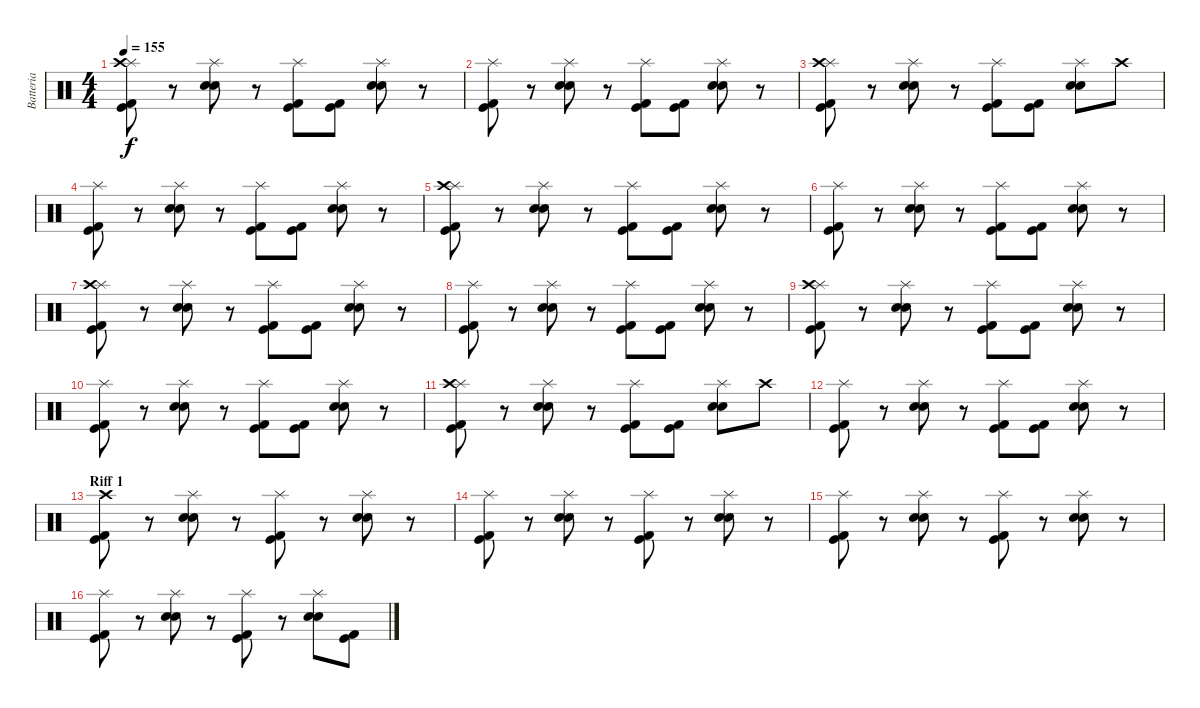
\track ("Batteria" "Batteria") {instrument percussion}
\staff {score}
\articulation defaults
\ts (4 4)
\tempo 155
\clef neutral
\ks c
("Kick (hit)" "Kick (hit) 2" "Splash (hit)" "Crash high (hit)").8{dy f} r.8 ("Electric Snare (hit)" "Snare (hit) 2" "Splash (hit)").8 r.8 ("Kick (hit)" "Kick (hit) 2" "Splash (hit)").8 ("Kick (hit)" "Kick (hit) 2").8 ("Electric Snare (hit)" "Snare (hit) 2" "Splash (hit)").8 r.8 |
("Kick (hit)" "Kick (hit) 2" "Splash (hit)").8 r.8 ("Electric Snare (hit)" "Snare (hit) 2" "Splash (hit)").8 r.8 ("Kick (hit)" "Kick (hit) 2" "Splash (hit)").8 ("Kick (hit)" "Kick (hit) 2").8 ("Electric Snare (hit)" "Snare (hit) 2" "Splash (hit)").8 r.8 |
("Kick (hit)" "Kick (hit) 2" "Splash (hit)" "Crash high (hit)").8 r.8 ("Electric Snare (hit)" "Snare (hit) 2" "Splash (hit)").8 r.8 ("Kick (hit)" "Kick (hit) 2" "Splash (hit)").8 ("Kick (hit)" "Kick (hit) 2").8 ("Electric Snare (hit)" "Snare (hit) 2" "Splash (hit)").8 "Crash high (hit)".8 |
("Kick (hit)" "Kick (hit) 2" "Splash (hit)").8 r.8 ("Electric Snare (hit)" "Snare (hit) 2" "Splash (hit)").8 r.8 ("Kick (hit)" "Kick (hit) 2" "Splash (hit)").8 ("Kick (hit)" "Kick (hit) 2").8 ("Electric Snare (hit)" "Snare (hit) 2" "Splash (hit)").8 r.8 |
("Kick (hit)" "Kick (hit) 2" "Splash (hit)" "Crash high (hit)").8 r.8 ("Electric Snare (hit)" "Snare (hit) 2" "Splash (hit)").8 r.8 ("Kick (hit)" "Kick (hit) 2" "Splash (hit)").8 ("Kick (hit)" "Kick (hit) 2").8 ("Electric Snare (hit)" "Snare (hit) 2" "Splash (hit)").8 r.8 |
("Kick (hit)" "Kick (hit) 2" "Splash (hit)").8 r.8 ("Electric Snare (hit)" "Snare (hit) 2" "Splash (hit)").8 r.8 ("Kick (hit)" "Kick (hit) 2" "Splash (hit)").8 ("Kick (hit)" "Kick (hit) 2").8 ("Electric Snare (hit)" "Snare (hit) 2" "Splash (hit)").8 r.8 |
("Kick (hit)" "Kick (hit) 2" "Splash (hit)" "Crash high (hit)").8 r.8 ("Electric Snare (hit)" "Snare (hit) 2" "Splash (hit)").8 r.8 ("Kick (hit)" "Kick (hit) 2" "Splash (hit)").8 ("Kick (hit)" "Kick (hit) 2").8 ("Electric Snare (hit)" "Snare (hit) 2" "Splash (hit)").8 r.8 |
("Kick (hit)" "Kick (hit) 2" "Splash (hit)").8 r.8 ("Electric Snare (hit)" "Snare (hit) 2" "Splash (hit)").8 r.8 ("Kick (hit)" "Kick (hit) 2" "Splash (hit)").8 ("Kick (hit)" "Kick (hit) 2").8 ("Electric Snare (hit)" "Snare (hit) 2" "Splash (hit)").8 r.8 |
("Kick (hit)" "Kick (hit) 2" "Splash (hit)" "Crash high (hit)").8 r.8 ("Electric Snare (hit)" "Snare (hit) 2" "Splash (hit)").8 r.8 ("Kick (hit)" "Kick (hit) 2" "Splash (hit)").8 ("Kick (hit)" "Kick (hit) 2").8 ("Electric Snare (hit)" "Snare (hit) 2" "Splash (hit)").8 r.8 |
("Kick (hit)" "Kick (hit) 2" "Splash (hit)").8 r.8 ("Electric Snare (hit)" "Snare (hit) 2" "Splash (hit)").8 r.8 ("Kick (hit)" "Kick (hit) 2" "Splash (hit)").8 ("Kick (hit)" "Kick (hit) 2").8 ("Electric Snare (hit)" "Snare (hit) 2" "Splash (hit)").8 r.8 |
("Kick (hit)" "Kick (hit) 2" "Splash (hit)" "Crash high (hit)").8 r.8 ("Electric Snare (hit)" "Snare (hit) 2" "Splash (hit)").8 r.8 ("Kick (hit)" "Kick (hit) 2" "Splash (hit)").8 ("Kick (hit)" "Kick (hit) 2").8 ("Electric Snare (hit)" "Snare (hit) 2" "Splash (hit)").8 "Crash high (hit)".8 |
("Kick (hit)" "Kick (hit) 2" "Splash (hit)").8 r.8 ("Electric Snare (hit)" "Snare (hit) 2" "Splash (hit)").8 r.8 ("Kick (hit)" "Kick (hit) 2" "Splash (hit)").8 ("Kick (hit)" "Kick (hit) 2").8 ("Electric Snare (hit)" "Snare (hit) 2" "Splash (hit)").8 r.8 |
\section ("" "Riff 1")
("Kick (hit)" "Kick (hit) 2" "Crash high (hit)").8 r.8 ("Electric Snare (hit)" "Snare (hit) 2" "Splash (hit)").8 r.8 ("Kick (hit)" "Kick (hit) 2" "Splash (hit)").8 r.8 ("Electric Snare (hit)" "Snare (hit) 2" "Splash (hit)").8 r.8 |
("Kick (hit)" "Kick (hit) 2" "Splash (hit)").8 r.8 ("Electric Snare (hit)" "Snare (hit) 2" "Splash (hit)").8 r.8 ("Kick (hit)" "Kick (hit) 2" "Splash (hit)").8 r.8 ("Electric Snare (hit)" "Snare (hit) 2" "Splash (hit)").8 r.8 |
("Kick (hit)" "Kick (hit) 2" "Splash (hit)").8 r.8 ("Electric Snare (hit)" "Snare (hit) 2" "Splash (hit)").8 r.8 ("Kick (hit)" "Kick (hit) 2" "Splash (hit)").8 r.8 ("Electric Snare (hit)" "Snare (hit) 2" "Splash (hit)").8 r.8 |
("Kick (hit)" "Kick (hit) 2" "Splash (hit)").8 r.8 ("Electric Snare (hit)" "Snare (hit) 2" "Splash (hit)").8 r.8 ("Kick (hit)" "Kick (hit) 2" "Splash (hit)").8 r.8 ("Electric Snare (hit)" "Snare (hit) 2" "Splash (hit)").8 ("Kick (hit)" "Kick (hit) 2").8
